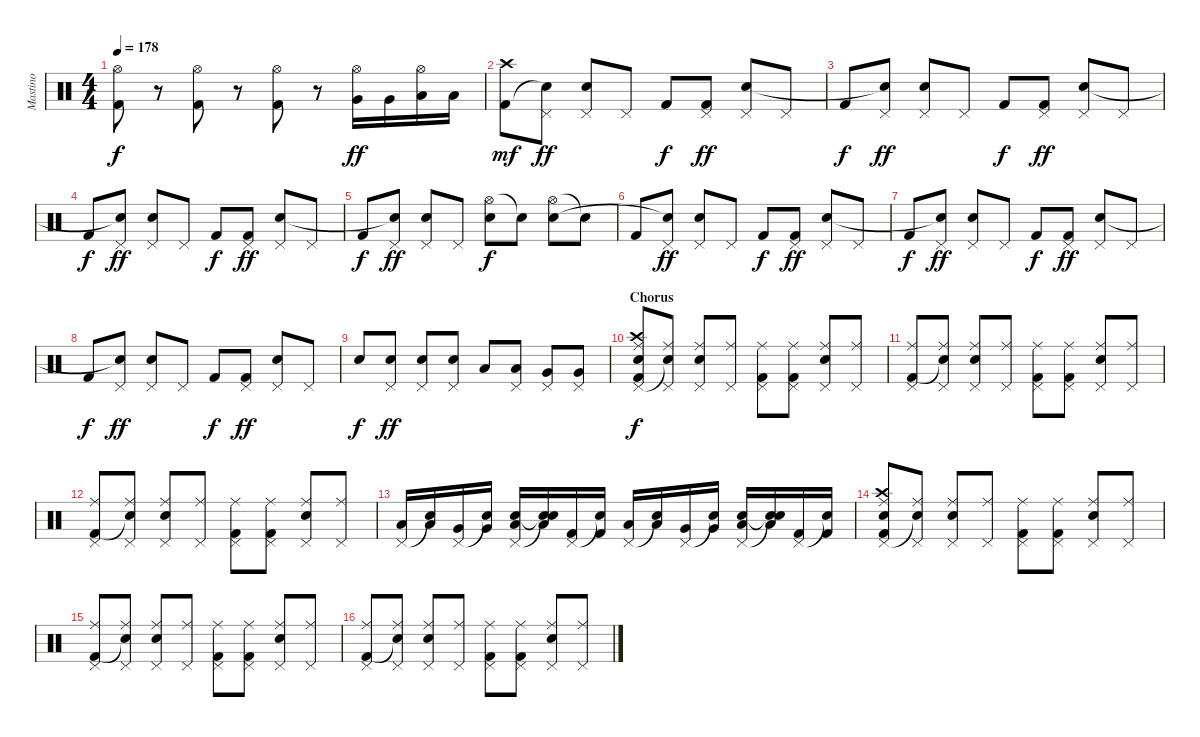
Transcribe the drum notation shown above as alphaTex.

\track ("Mastino" "Mastino") {instrument percussion}
\staff {score}
\articulation defaults
\ts (4 4)
\tempo 178
\clef neutral
\ks c
("Hi-Hat (open)" "Kick (hit) 2").8{dy f} r.8 ("Hi-Hat (open)" "Kick (hit) 2").8 r.8 ("Hi-Hat (open)" "Kick (hit) 2").8 r.8 ("Hi-Hat (open)" "Very Low Tom (hit)").16{dy ff} "Very Low Tom (hit)".16 ("Hi-Hat (open)" "Low Floor Tom (hit)").16 "Low Floor Tom (hit)".16 |
("Crash high (hit)" "Kick (hit) 2").8{dy mf} ("Pedal Hi-Hat (hit)" "Snare (hit)"{t}).8{dy ff} ("Pedal Hi-Hat (hit)" "Electric Snare (hit)").8 "Pedal Hi-Hat (hit)".8 "Kick (hit) 2".8{dy f} ("Pedal Hi-Hat (hit)" "Kick (hit) 2").8{dy ff} ("Pedal Hi-Hat (hit)" "Electric Snare (hit)").8 "Pedal Hi-Hat (hit)".8 |
"Kick (hit) 2".8{dy f} ("Pedal Hi-Hat (hit)" "Snare (hit)"{t}).8{dy ff} ("Pedal Hi-Hat (hit)" "Electric Snare (hit)").8 "Pedal Hi-Hat (hit)".8 "Kick (hit) 2".8{dy f} ("Pedal Hi-Hat (hit)" "Kick (hit) 2").8{dy ff} ("Pedal Hi-Hat (hit)" "Electric Snare (hit)").8 "Pedal Hi-Hat (hit)".8 |
"Kick (hit) 2".8{dy f} ("Pedal Hi-Hat (hit)" "Snare (hit)"{t}).8{dy ff} ("Pedal Hi-Hat (hit)" "Electric Snare (hit)").8 "Pedal Hi-Hat (hit)".8 "Kick (hit) 2".8{dy f} ("Pedal Hi-Hat (hit)" "Kick (hit) 2").8{dy ff} ("Pedal Hi-Hat (hit)" "Electric Snare (hit)").8 "Pedal Hi-Hat (hit)".8 |
"Kick (hit) 2".8{dy f} ("Pedal Hi-Hat (hit)" "Snare (hit)"{t}).8{dy ff} ("Pedal Hi-Hat (hit)" "Electric Snare (hit)").8 "Pedal Hi-Hat (hit)".8 ("Hi-Hat (open)" "Electric Snare (hit)").8{dy f} "Snare (hit)"{t}.8 ("Hi-Hat (open)" "Electric Snare (hit)").8 "Snare (hit)"{t}.8 |
"Kick (hit) 2".8 ("Pedal Hi-Hat (hit)" "Snare (hit)"{t}).8{dy ff} ("Pedal Hi-Hat (hit)" "Electric Snare (hit)").8 "Pedal Hi-Hat (hit)".8 "Kick (hit) 2".8{dy f} ("Pedal Hi-Hat (hit)" "Kick (hit) 2").8{dy ff} ("Pedal Hi-Hat (hit)" "Electric Snare (hit)").8 "Pedal Hi-Hat (hit)".8 |
"Kick (hit) 2".8{dy f} ("Pedal Hi-Hat (hit)" "Snare (hit)"{t}).8{dy ff} ("Pedal Hi-Hat (hit)" "Electric Snare (hit)").8 "Pedal Hi-Hat (hit)".8 "Kick (hit) 2".8{dy f} ("Pedal Hi-Hat (hit)" "Kick (hit) 2").8{dy ff} ("Pedal Hi-Hat (hit)" "Electric Snare (hit)").8 "Pedal Hi-Hat (hit)".8 |
"Kick (hit) 2".8{dy f} ("Pedal Hi-Hat (hit)" "Snare (hit)"{t}).8{dy ff} ("Pedal Hi-Hat (hit)" "Electric Snare (hit)").8 "Pedal Hi-Hat (hit)".8 "Kick (hit) 2".8{dy f} ("Pedal Hi-Hat (hit)" "Kick (hit) 2").8{dy ff} ("Pedal Hi-Hat (hit)" "Electric Snare (hit)").8 "Pedal Hi-Hat (hit)".8 |
"Electric Snare (hit)".8{dy f} ("Pedal Hi-Hat (hit)" "Electric Snare (hit)").8{dy ff} ("Pedal Hi-Hat (hit)" "Electric Snare (hit)").8 ("Pedal Hi-Hat (hit)" "Electric Snare (hit)").8 "Low Tom (hit)".8 ("Pedal Hi-Hat (hit)" "Low Tom (hit)").8 ("Pedal Hi-Hat (hit)" "Very Low Tom (hit)").8 ("Pedal Hi-Hat (hit)" "Very Low Tom (hit)").8 |
\section ("" "Chorus")
("Crash high (hit)" "Ride (middle)" "Pedal Hi-Hat (hit)" "Snare (hit)" "Kick (hit) 2").8{dy f} ("Ride (middle)" "Pedal Hi-Hat (hit)" "Snare (hit)"{t}).8 ("Ride (middle)" "Pedal Hi-Hat (hit)" "Electric Snare (hit)").8 ("Ride (middle)" "Pedal Hi-Hat (hit)").8 ("Ride (middle)" "Pedal Hi-Hat (hit)" "Kick (hit) 2").8 ("Ride (middle)" "Pedal Hi-Hat (hit)" "Kick (hit) 2").8 ("Ride (middle)" "Pedal Hi-Hat (hit)" "Electric Snare (hit)").8 ("Ride (middle)" "Pedal Hi-Hat (hit)").8 |
("Ride (middle)" "Pedal Hi-Hat (hit)" "Kick (hit) 2").8 ("Ride (middle)" "Pedal Hi-Hat (hit)" "Snare (hit)"{t}).8 ("Ride (middle)" "Pedal Hi-Hat (hit)" "Electric Snare (hit)").8 ("Ride (middle)" "Pedal Hi-Hat (hit)").8 ("Ride (middle)" "Pedal Hi-Hat (hit)" "Kick (hit) 2").8 ("Ride (middle)" "Pedal Hi-Hat (hit)" "Kick (hit) 2").8 ("Ride (middle)" "Pedal Hi-Hat (hit)" "Electric Snare (hit)").8 ("Ride (middle)" "Pedal Hi-Hat (hit)").8 |
("Ride (middle)" "Pedal Hi-Hat (hit)" "Kick (hit) 2").8 ("Ride (middle)" "Pedal Hi-Hat (hit)" "Snare (hit)"{t}).8 ("Ride (middle)" "Pedal Hi-Hat (hit)" "Electric Snare (hit)").8 ("Ride (middle)" "Pedal Hi-Hat (hit)").8 ("Ride (middle)" "Pedal Hi-Hat (hit)" "Kick (hit) 2").8 ("Ride (middle)" "Pedal Hi-Hat (hit)" "Kick (hit) 2").8 ("Ride (middle)" "Pedal Hi-Hat (hit)" "Electric Snare (hit)").8 ("Ride (middle)" "Pedal Hi-Hat (hit)").8 |
("Pedal Hi-Hat (hit)" "Low Tom (hit)").16 ("Snare (hit)"{t} "Low Tom (hit)").16 ("Pedal Hi-Hat (hit)" "Very Low Tom (hit)").16 ("Snare (hit)"{t} "Very Low Tom (hit)").16 ("Pedal Hi-Hat (hit)" "Electric Snare (hit)" "Low Floor Tom (hit)").16 ("Snare (hit)"{t} "Electric Snare (hit)"{t} "Low Floor Tom (hit)").16 ("Pedal Hi-Hat (hit)" "Kick (hit) 2").16 ("Snare (hit)"{t} "Kick (hit) 2").16 ("Pedal Hi-Hat (hit)" "Low Tom (hit)").16 ("Snare (hit)"{t} "Low Tom (hit)").16 ("Pedal Hi-Hat (hit)" "Very Low Tom (hit)").16 ("Snare (hit)"{t} "Very Low Tom (hit)").16 ("Pedal Hi-Hat (hit)" "Electric Snare (hit)" "Low Floor Tom (hit)").16 ("Snare (hit)"{t} "Electric Snare (hit)"{t} "Low Floor Tom (hit)").16 ("Pedal Hi-Hat (hit)" "Kick (hit) 2").16 ("Snare (hit)"{t} "Kick (hit) 2").16 |
("Crash high (hit)" "Ride (middle)" "Pedal Hi-Hat (hit)" "Snare (hit)" "Kick (hit) 2").8 ("Ride (middle)" "Pedal Hi-Hat (hit)" "Snare (hit)"{t}).8 ("Ride (middle)" "Pedal Hi-Hat (hit)" "Electric Snare (hit)").8 ("Ride (middle)" "Pedal Hi-Hat (hit)").8 ("Ride (middle)" "Pedal Hi-Hat (hit)" "Kick (hit) 2").8 ("Ride (middle)" "Pedal Hi-Hat (hit)" "Kick (hit) 2").8 ("Ride (middle)" "Pedal Hi-Hat (hit)" "Electric Snare (hit)").8 ("Ride (middle)" "Pedal Hi-Hat (hit)").8 |
("Ride (middle)" "Pedal Hi-Hat (hit)" "Kick (hit) 2").8 ("Ride (middle)" "Pedal Hi-Hat (hit)" "Snare (hit)"{t}).8 ("Ride (middle)" "Pedal Hi-Hat (hit)" "Electric Snare (hit)").8 ("Ride (middle)" "Pedal Hi-Hat (hit)").8 ("Ride (middle)" "Pedal Hi-Hat (hit)" "Kick (hit) 2").8 ("Ride (middle)" "Pedal Hi-Hat (hit)" "Kick (hit) 2").8 ("Ride (middle)" "Pedal Hi-Hat (hit)" "Electric Snare (hit)").8 ("Ride (middle)" "Pedal Hi-Hat (hit)").8 |
("Ride (middle)" "Pedal Hi-Hat (hit)" "Kick (hit) 2").8 ("Ride (middle)" "Pedal Hi-Hat (hit)" "Snare (hit)"{t}).8 ("Ride (middle)" "Pedal Hi-Hat (hit)" "Electric Snare (hit)").8 ("Ride (middle)" "Pedal Hi-Hat (hit)").8 ("Ride (middle)" "Pedal Hi-Hat (hit)" "Kick (hit) 2").8 ("Ride (middle)" "Pedal Hi-Hat (hit)" "Kick (hit) 2").8 ("Ride (middle)" "Pedal Hi-Hat (hit)" "Electric Snare (hit)").8 ("Ride (middle)" "Pedal Hi-Hat (hit)").8
